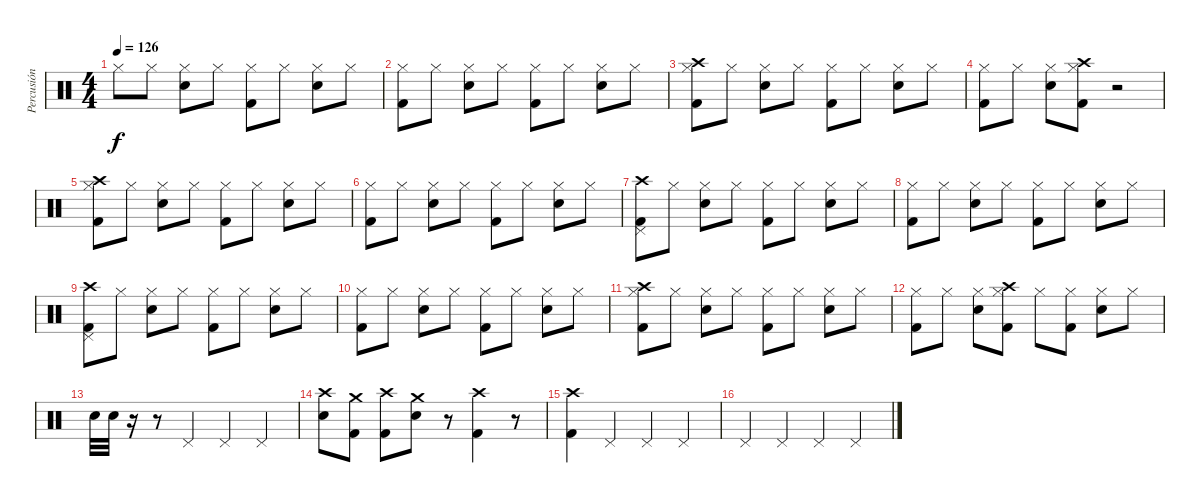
\track ("Percusión" "Percusión") {instrument percussion}
\staff {score}
\articulation defaults
\ts (4 4)
\tempo 126
\clef neutral
\ks c "Hi-Hat (closed)".8{dy f} "Hi-Hat (closed)".8
("Hi-Hat (closed)" "Snare (hit) 2").8 "Hi-Hat (closed)".8 ("Hi-Hat (closed)" "Kick (hit) 2").8 "Hi-Hat (closed)".8 ("Hi-Hat (closed)" "Snare (hit) 2").8 "Hi-Hat (closed)".8 |
("Hi-Hat (closed)" "Kick (hit) 2").8 "Hi-Hat (closed)".8 ("Hi-Hat (closed)" "Snare (hit) 2").8 "Hi-Hat (closed)".8 ("Hi-Hat (closed)" "Kick (hit) 2").8 "Hi-Hat (closed)".8 ("Hi-Hat (closed)" "Snare (hit) 2").8 "Hi-Hat (closed)".8 |
("Hi-Hat (closed)" "Crash high (hit)" "Kick (hit) 2").8 "Hi-Hat (closed)".8 ("Hi-Hat (closed)" "Snare (hit) 2").8 "Hi-Hat (closed)".8 ("Hi-Hat (closed)" "Kick (hit) 2").8 "Hi-Hat (closed)".8 ("Hi-Hat (closed)" "Snare (hit) 2").8 "Hi-Hat (closed)".8 |
("Hi-Hat (closed)" "Kick (hit) 2").8 "Hi-Hat (closed)".8 ("Hi-Hat (closed)" "Snare (hit) 2").8 ("Hi-Hat (closed)" "Crash high (hit)" "Kick (hit) 2").8 r.2 |
("Hi-Hat (closed)" "Crash high (hit)" "Kick (hit) 2").8 "Hi-Hat (closed)".8 ("Hi-Hat (closed)" "Snare (hit) 2").8 "Hi-Hat (closed)".8 ("Hi-Hat (closed)" "Kick (hit) 2").8 "Hi-Hat (closed)".8 ("Hi-Hat (closed)" "Snare (hit) 2").8 "Hi-Hat (closed)".8 |
("Hi-Hat (closed)" "Kick (hit) 2").8 "Hi-Hat (closed)".8 ("Hi-Hat (closed)" "Snare (hit) 2").8 "Hi-Hat (closed)".8 ("Hi-Hat (closed)" "Kick (hit) 2").8 "Hi-Hat (closed)".8 ("Hi-Hat (closed)" "Snare (hit) 2").8 "Hi-Hat (closed)".8 |
("Pedal Hi-Hat (hit)" "Crash high (hit)" "Kick (hit) 2").8 "Hi-Hat (closed)".8 ("Hi-Hat (closed)" "Snare (hit) 2").8 "Hi-Hat (closed)".8 ("Hi-Hat (closed)" "Kick (hit) 2").8 "Hi-Hat (closed)".8 ("Hi-Hat (closed)" "Snare (hit) 2").8 "Hi-Hat (closed)".8 |
("Hi-Hat (closed)" "Kick (hit) 2").8 "Hi-Hat (closed)".8 ("Hi-Hat (closed)" "Snare (hit) 2").8 "Hi-Hat (closed)".8 ("Hi-Hat (closed)" "Kick (hit) 2").8 "Hi-Hat (closed)".8 ("Hi-Hat (closed)" "Snare (hit) 2").8 "Hi-Hat (closed)".8 |
("Pedal Hi-Hat (hit)" "Crash high (hit)" "Kick (hit) 2").8 "Hi-Hat (closed)".8 ("Hi-Hat (closed)" "Snare (hit) 2").8 "Hi-Hat (closed)".8 ("Hi-Hat (closed)" "Kick (hit) 2").8 "Hi-Hat (closed)".8 ("Hi-Hat (closed)" "Snare (hit) 2").8 "Hi-Hat (closed)".8 |
("Hi-Hat (closed)" "Kick (hit) 2").8 "Hi-Hat (closed)".8 ("Hi-Hat (closed)" "Snare (hit) 2").8 "Hi-Hat (closed)".8 ("Hi-Hat (closed)" "Kick (hit) 2").8 "Hi-Hat (closed)".8 ("Hi-Hat (closed)" "Snare (hit) 2").8 "Hi-Hat (closed)".8 |
("Hi-Hat (closed)" "Crash high (hit)" "Kick (hit) 2").8 "Hi-Hat (closed)".8 ("Hi-Hat (closed)" "Snare (hit) 2").8 "Hi-Hat (closed)".8 ("Hi-Hat (closed)" "Kick (hit) 2").8 "Hi-Hat (closed)".8 ("Hi-Hat (closed)" "Snare (hit) 2").8 "Hi-Hat (closed)".8 |
("Hi-Hat (closed)" "Kick (hit) 2").8 "Hi-Hat (closed)".8 ("Hi-Hat (closed)" "Snare (hit) 2").8 ("Hi-Hat (closed)" "Crash high (hit)" "Kick (hit) 2").8 "Hi-Hat (closed)".8 ("Hi-Hat (closed)" "Kick (hit) 2").8 ("Hi-Hat (closed)" "Snare (hit) 2").8 "Hi-Hat (closed)".8 |
"Snare (hit) 2".32 "Snare (hit) 2".32 r.16 r.8 "Pedal Hi-Hat (hit)".4 "Pedal Hi-Hat (hit)".4 "Pedal Hi-Hat (hit)".4 |
("Crash high (hit)" "Snare (hit) 2").8 ("Crash medium (hit)" "Kick (hit) 2").8 ("Crash high (hit)" "Kick (hit) 2").8 ("Crash medium (hit)" "Snare (hit) 2").8 r.8 ("Crash high (hit)" "Kick (hit) 2").4 r.8 |
("Crash high (hit)" "Kick (hit) 2").4 "Pedal Hi-Hat (hit)".4 "Pedal Hi-Hat (hit)".4 "Pedal Hi-Hat (hit)".4 |
"Pedal Hi-Hat (hit)".4 "Pedal Hi-Hat (hit)".4 "Pedal Hi-Hat (hit)".4 "Pedal Hi-Hat (hit)".4
